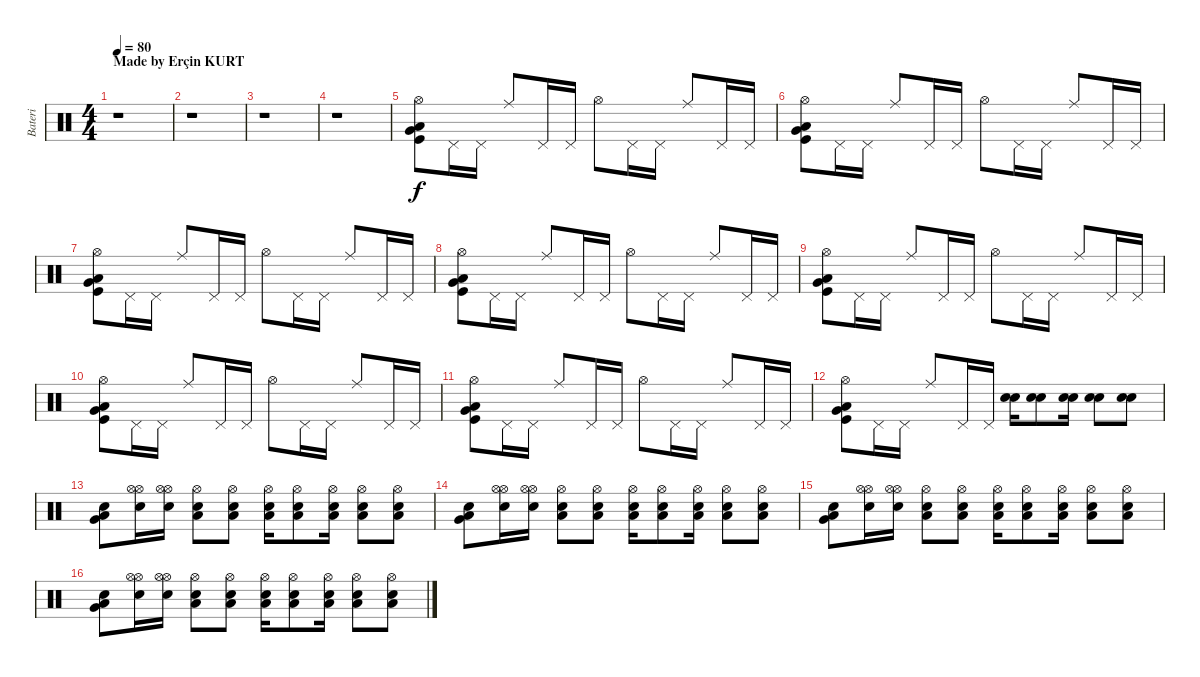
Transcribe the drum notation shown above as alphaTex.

\track ("Bateri" "Bateri") {instrument percussion}
\staff {score}
\articulation defaults
\ts (4 4)
\section ("" "Made by Erçin KURT")
\tempo 80
\clef neutral
\ks c
r.1{dy f} |
r.1 |
r.1 |
r.1 |
("Hi-Hat (open)" "Kick (hit)" "Very Low Tom (hit)" "Low Floor Tom (hit)").8 "Pedal Hi-Hat (hit)".16 "Pedal Hi-Hat (hit)".16 "Ride (middle)".8 "Pedal Hi-Hat (hit)".16 "Pedal Hi-Hat (hit)".16 "Hi-Hat (open)".8 "Pedal Hi-Hat (hit)".16 "Pedal Hi-Hat (hit)".16 "Ride (middle)".8 "Pedal Hi-Hat (hit)".16 "Pedal Hi-Hat (hit)".16 |
("Hi-Hat (open)" "Kick (hit)" "Very Low Tom (hit)" "Low Floor Tom (hit)").8 "Pedal Hi-Hat (hit)".16 "Pedal Hi-Hat (hit)".16 "Ride (middle)".8 "Pedal Hi-Hat (hit)".16 "Pedal Hi-Hat (hit)".16 "Hi-Hat (open)".8 "Pedal Hi-Hat (hit)".16 "Pedal Hi-Hat (hit)".16 "Ride (middle)".8 "Pedal Hi-Hat (hit)".16 "Pedal Hi-Hat (hit)".16 |
("Hi-Hat (open)" "Kick (hit)" "Very Low Tom (hit)" "Low Floor Tom (hit)").8 "Pedal Hi-Hat (hit)".16 "Pedal Hi-Hat (hit)".16 "Ride (middle)".8 "Pedal Hi-Hat (hit)".16 "Pedal Hi-Hat (hit)".16 "Hi-Hat (open)".8 "Pedal Hi-Hat (hit)".16 "Pedal Hi-Hat (hit)".16 "Ride (middle)".8 "Pedal Hi-Hat (hit)".16 "Pedal Hi-Hat (hit)".16 |
("Hi-Hat (open)" "Kick (hit)" "Very Low Tom (hit)" "Low Floor Tom (hit)").8 "Pedal Hi-Hat (hit)".16 "Pedal Hi-Hat (hit)".16 "Ride (middle)".8 "Pedal Hi-Hat (hit)".16 "Pedal Hi-Hat (hit)".16 "Hi-Hat (open)".8 "Pedal Hi-Hat (hit)".16 "Pedal Hi-Hat (hit)".16 "Ride (middle)".8 "Pedal Hi-Hat (hit)".16 "Pedal Hi-Hat (hit)".16 |
("Hi-Hat (open)" "Kick (hit)" "Very Low Tom (hit)" "Low Floor Tom (hit)").8 "Pedal Hi-Hat (hit)".16 "Pedal Hi-Hat (hit)".16 "Ride (middle)".8 "Pedal Hi-Hat (hit)".16 "Pedal Hi-Hat (hit)".16 "Hi-Hat (open)".8 "Pedal Hi-Hat (hit)".16 "Pedal Hi-Hat (hit)".16 "Ride (middle)".8 "Pedal Hi-Hat (hit)".16 "Pedal Hi-Hat (hit)".16 |
("Hi-Hat (open)" "Kick (hit)" "Very Low Tom (hit)" "Low Floor Tom (hit)").8 "Pedal Hi-Hat (hit)".16 "Pedal Hi-Hat (hit)".16 "Ride (middle)".8 "Pedal Hi-Hat (hit)".16 "Pedal Hi-Hat (hit)".16 "Hi-Hat (open)".8 "Pedal Hi-Hat (hit)".16 "Pedal Hi-Hat (hit)".16 "Ride (middle)".8 "Pedal Hi-Hat (hit)".16 "Pedal Hi-Hat (hit)".16 |
("Hi-Hat (open)" "Kick (hit)" "Very Low Tom (hit)" "Low Floor Tom (hit)").8 "Pedal Hi-Hat (hit)".16 "Pedal Hi-Hat (hit)".16 "Ride (middle)".8 "Pedal Hi-Hat (hit)".16 "Pedal Hi-Hat (hit)".16 "Hi-Hat (open)".8 "Pedal Hi-Hat (hit)".16 "Pedal Hi-Hat (hit)".16 "Ride (middle)".8 "Pedal Hi-Hat (hit)".16 "Pedal Hi-Hat (hit)".16 |
("Hi-Hat (open)" "Kick (hit)" "Very Low Tom (hit)" "Low Floor Tom (hit)").8 "Pedal Hi-Hat (hit)".16 "Pedal Hi-Hat (hit)".16 "Ride (middle)".8 "Pedal Hi-Hat (hit)".16 "Pedal Hi-Hat (hit)".16 ("Electric Snare (hit)" "Snare (hit) 2").16 ("Electric Snare (hit)" "Snare (hit) 2").8 ("Electric Snare (hit)" "Snare (hit) 2").16 ("Electric Snare (hit)" "Snare (hit) 2").8 ("Electric Snare (hit)" "Snare (hit) 2").8 |
("Electric Snare (hit)" "Low Floor Tom (hit)" "Very Low Tom (hit)").8 ("Hi-Hat (open)" "Hi-Hat (open)" "Electric Snare (hit)").16 ("Hi-Hat (open)" "Hi-Hat (open)" "Electric Snare (hit)").16 ("Low Floor Tom (hit)" "Hi-Hat (open)" "Electric Snare (hit)").8 ("Low Floor Tom (hit)" "Hi-Hat (open)" "Electric Snare (hit)").8 ("Low Floor Tom (hit)" "Hi-Hat (open)" "Electric Snare (hit)").16 ("Low Floor Tom (hit)" "Hi-Hat (open)" "Electric Snare (hit)").8 ("Low Floor Tom (hit)" "Hi-Hat (open)" "Electric Snare (hit)").16 ("Low Floor Tom (hit)" "Hi-Hat (open)" "Electric Snare (hit)").8 ("Low Floor Tom (hit)" "Hi-Hat (open)" "Electric Snare (hit)").8 |
("Electric Snare (hit)" "Low Floor Tom (hit)" "Very Low Tom (hit)").8 ("Hi-Hat (open)" "Hi-Hat (open)" "Electric Snare (hit)").16 ("Hi-Hat (open)" "Hi-Hat (open)" "Electric Snare (hit)").16 ("Low Floor Tom (hit)" "Hi-Hat (open)" "Electric Snare (hit)").8 ("Low Floor Tom (hit)" "Hi-Hat (open)" "Electric Snare (hit)").8 ("Low Floor Tom (hit)" "Hi-Hat (open)" "Electric Snare (hit)").16 ("Low Floor Tom (hit)" "Hi-Hat (open)" "Electric Snare (hit)").8 ("Low Floor Tom (hit)" "Hi-Hat (open)" "Electric Snare (hit)").16 ("Low Floor Tom (hit)" "Hi-Hat (open)" "Electric Snare (hit)").8 ("Low Floor Tom (hit)" "Hi-Hat (open)" "Electric Snare (hit)").8 |
("Electric Snare (hit)" "Low Floor Tom (hit)" "Very Low Tom (hit)").8 ("Hi-Hat (open)" "Hi-Hat (open)" "Electric Snare (hit)").16 ("Hi-Hat (open)" "Hi-Hat (open)" "Electric Snare (hit)").16 ("Low Floor Tom (hit)" "Hi-Hat (open)" "Electric Snare (hit)").8 ("Low Floor Tom (hit)" "Hi-Hat (open)" "Electric Snare (hit)").8 ("Low Floor Tom (hit)" "Hi-Hat (open)" "Electric Snare (hit)").16 ("Low Floor Tom (hit)" "Hi-Hat (open)" "Electric Snare (hit)").8 ("Low Floor Tom (hit)" "Hi-Hat (open)" "Electric Snare (hit)").16 ("Low Floor Tom (hit)" "Hi-Hat (open)" "Electric Snare (hit)").8 ("Low Floor Tom (hit)" "Hi-Hat (open)" "Electric Snare (hit)").8 |
("Electric Snare (hit)" "Low Floor Tom (hit)" "Very Low Tom (hit)").8 ("Hi-Hat (open)" "Hi-Hat (open)" "Electric Snare (hit)").16 ("Hi-Hat (open)" "Hi-Hat (open)" "Electric Snare (hit)").16 ("Low Floor Tom (hit)" "Hi-Hat (open)" "Electric Snare (hit)").8 ("Low Floor Tom (hit)" "Hi-Hat (open)" "Electric Snare (hit)").8 ("Low Floor Tom (hit)" "Hi-Hat (open)" "Electric Snare (hit)").16 ("Low Floor Tom (hit)" "Hi-Hat (open)" "Electric Snare (hit)").8 ("Low Floor Tom (hit)" "Hi-Hat (open)" "Electric Snare (hit)").16 ("Low Floor Tom (hit)" "Hi-Hat (open)" "Electric Snare (hit)").8 ("Low Floor Tom (hit)" "Hi-Hat (open)" "Electric Snare (hit)").8
